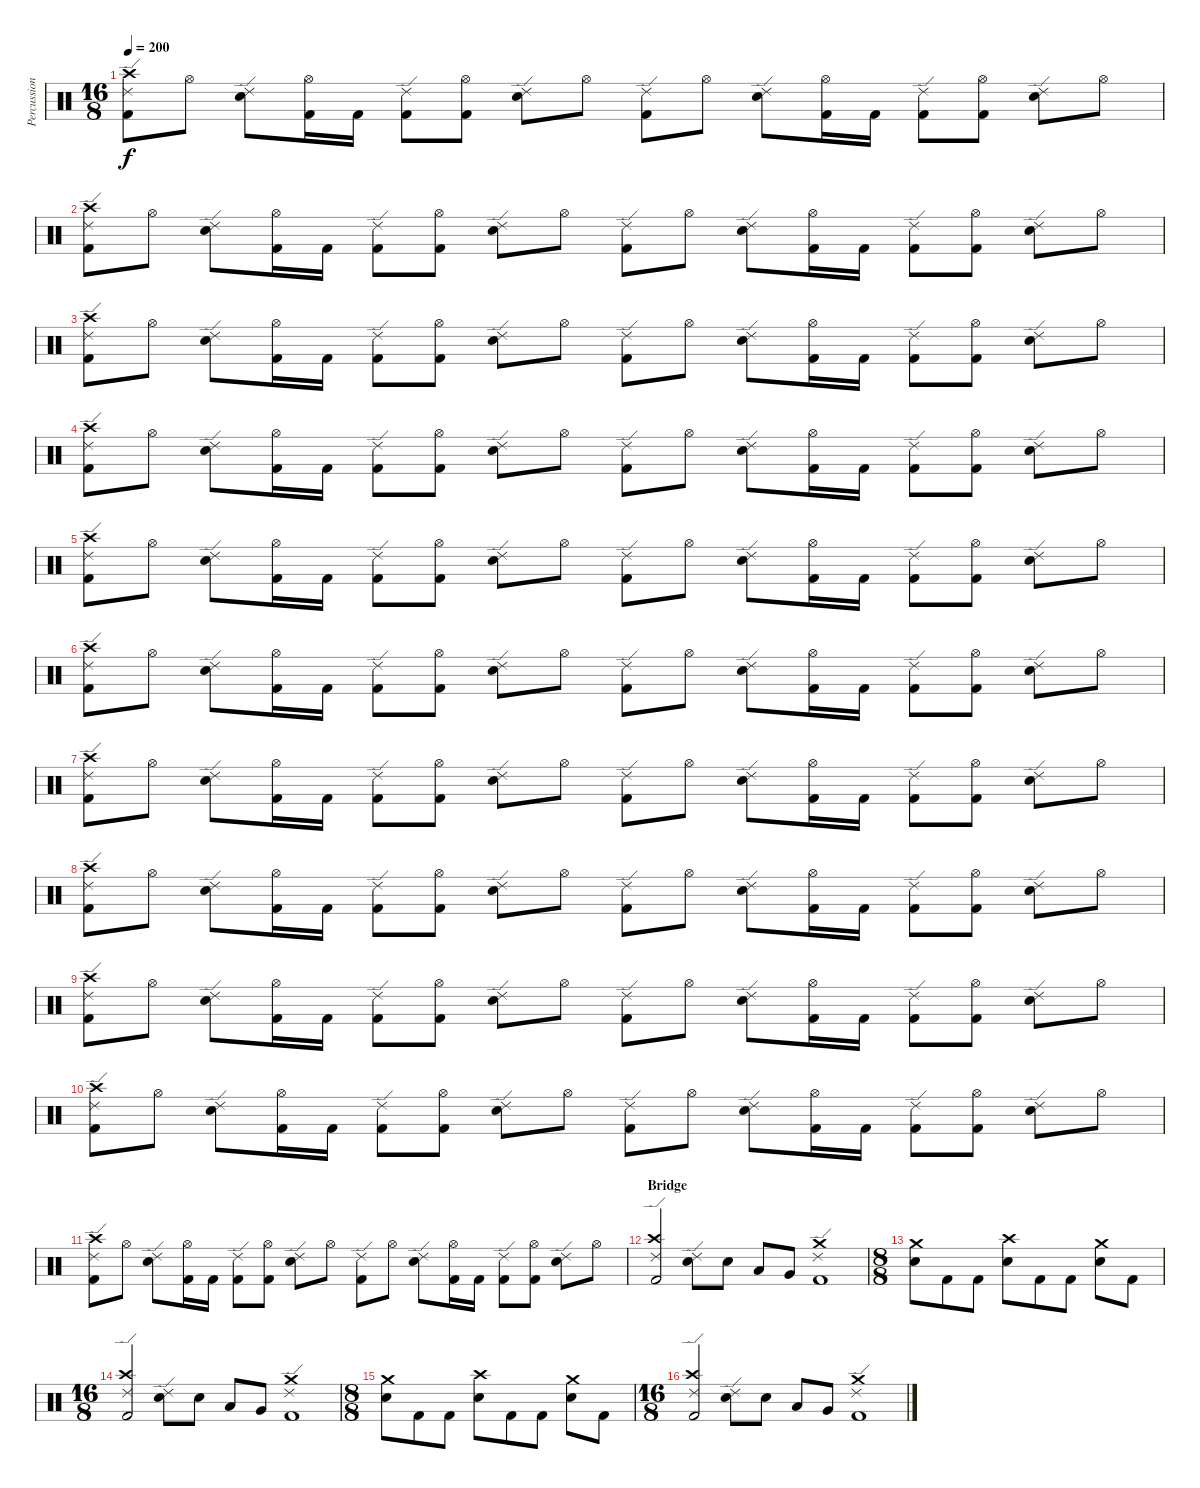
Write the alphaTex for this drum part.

\track ("Percussions" "Percussion") {instrument percussion}
\staff {score}
\articulation defaults
\ts (16 8)
\tempo 200
\clef neutral
\ks c
("Ride (edge) 2" "Crash high (hit)" "Kick (hit) 2").8{dy f} "Hi-Hat (open)".8 ("Ride (edge) 2" "Electric Snare (hit)").8 ("Hi-Hat (open)" "Kick (hit) 2").16 "Kick (hit) 2".16 ("Ride (edge) 2" "Kick (hit) 2").8 ("Hi-Hat (open)" "Kick (hit) 2").8 ("Ride (edge) 2" "Electric Snare (hit)").8 "Hi-Hat (open)".8 ("Ride (edge) 2" "Kick (hit) 2").8 "Hi-Hat (open)".8 ("Ride (edge) 2" "Electric Snare (hit)").8 ("Hi-Hat (open)" "Kick (hit) 2").16 "Kick (hit) 2".16 ("Ride (edge) 2" "Kick (hit) 2").8 ("Hi-Hat (open)" "Kick (hit) 2").8 ("Ride (edge) 2" "Electric Snare (hit)").8 "Hi-Hat (open)".8 |
("Ride (edge) 2" "Crash high (hit)" "Kick (hit) 2").8 "Hi-Hat (open)".8 ("Ride (edge) 2" "Electric Snare (hit)").8 ("Hi-Hat (open)" "Kick (hit) 2").16 "Kick (hit) 2".16 ("Ride (edge) 2" "Kick (hit) 2").8 ("Hi-Hat (open)" "Kick (hit) 2").8 ("Ride (edge) 2" "Electric Snare (hit)").8 "Hi-Hat (open)".8 ("Ride (edge) 2" "Kick (hit) 2").8 "Hi-Hat (open)".8 ("Ride (edge) 2" "Electric Snare (hit)").8 ("Hi-Hat (open)" "Kick (hit) 2").16 "Kick (hit) 2".16 ("Ride (edge) 2" "Kick (hit) 2").8 ("Hi-Hat (open)" "Kick (hit) 2").8 ("Ride (edge) 2" "Electric Snare (hit)").8 "Hi-Hat (open)".8 |
("Ride (edge) 2" "Crash high (hit)" "Kick (hit) 2").8 "Hi-Hat (open)".8 ("Ride (edge) 2" "Electric Snare (hit)").8 ("Hi-Hat (open)" "Kick (hit) 2").16 "Kick (hit) 2".16 ("Ride (edge) 2" "Kick (hit) 2").8 ("Hi-Hat (open)" "Kick (hit) 2").8 ("Ride (edge) 2" "Electric Snare (hit)").8 "Hi-Hat (open)".8 ("Ride (edge) 2" "Kick (hit) 2").8 "Hi-Hat (open)".8 ("Ride (edge) 2" "Electric Snare (hit)").8 ("Hi-Hat (open)" "Kick (hit) 2").16 "Kick (hit) 2".16 ("Ride (edge) 2" "Kick (hit) 2").8 ("Hi-Hat (open)" "Kick (hit) 2").8 ("Ride (edge) 2" "Electric Snare (hit)").8 "Hi-Hat (open)".8 |
("Ride (edge) 2" "Crash high (hit)" "Kick (hit) 2").8 "Hi-Hat (open)".8 ("Ride (edge) 2" "Electric Snare (hit)").8 ("Hi-Hat (open)" "Kick (hit) 2").16 "Kick (hit) 2".16 ("Ride (edge) 2" "Kick (hit) 2").8 ("Hi-Hat (open)" "Kick (hit) 2").8 ("Ride (edge) 2" "Electric Snare (hit)").8 "Hi-Hat (open)".8 ("Ride (edge) 2" "Kick (hit) 2").8 "Hi-Hat (open)".8 ("Ride (edge) 2" "Electric Snare (hit)").8 ("Hi-Hat (open)" "Kick (hit) 2").16 "Kick (hit) 2".16 ("Ride (edge) 2" "Kick (hit) 2").8 ("Hi-Hat (open)" "Kick (hit) 2").8 ("Ride (edge) 2" "Electric Snare (hit)").8 "Hi-Hat (open)".8 |
("Ride (edge) 2" "Crash high (hit)" "Kick (hit) 2").8 "Hi-Hat (open)".8 ("Ride (edge) 2" "Electric Snare (hit)").8 ("Hi-Hat (open)" "Kick (hit) 2").16 "Kick (hit) 2".16 ("Ride (edge) 2" "Kick (hit) 2").8 ("Hi-Hat (open)" "Kick (hit) 2").8 ("Ride (edge) 2" "Electric Snare (hit)").8 "Hi-Hat (open)".8 ("Ride (edge) 2" "Kick (hit) 2").8 "Hi-Hat (open)".8 ("Ride (edge) 2" "Electric Snare (hit)").8 ("Hi-Hat (open)" "Kick (hit) 2").16 "Kick (hit) 2".16 ("Ride (edge) 2" "Kick (hit) 2").8 ("Hi-Hat (open)" "Kick (hit) 2").8 ("Ride (edge) 2" "Electric Snare (hit)").8 "Hi-Hat (open)".8 |
("Ride (edge) 2" "Crash high (hit)" "Kick (hit) 2").8 "Hi-Hat (open)".8 ("Ride (edge) 2" "Electric Snare (hit)").8 ("Hi-Hat (open)" "Kick (hit) 2").16 "Kick (hit) 2".16 ("Ride (edge) 2" "Kick (hit) 2").8 ("Hi-Hat (open)" "Kick (hit) 2").8 ("Ride (edge) 2" "Electric Snare (hit)").8 "Hi-Hat (open)".8 ("Ride (edge) 2" "Kick (hit) 2").8 "Hi-Hat (open)".8 ("Ride (edge) 2" "Electric Snare (hit)").8 ("Hi-Hat (open)" "Kick (hit) 2").16 "Kick (hit) 2".16 ("Ride (edge) 2" "Kick (hit) 2").8 ("Hi-Hat (open)" "Kick (hit) 2").8 ("Ride (edge) 2" "Electric Snare (hit)").8 "Hi-Hat (open)".8 |
("Ride (edge) 2" "Crash high (hit)" "Kick (hit) 2").8 "Hi-Hat (open)".8 ("Ride (edge) 2" "Electric Snare (hit)").8 ("Hi-Hat (open)" "Kick (hit) 2").16 "Kick (hit) 2".16 ("Ride (edge) 2" "Kick (hit) 2").8 ("Hi-Hat (open)" "Kick (hit) 2").8 ("Ride (edge) 2" "Electric Snare (hit)").8 "Hi-Hat (open)".8 ("Ride (edge) 2" "Kick (hit) 2").8 "Hi-Hat (open)".8 ("Ride (edge) 2" "Electric Snare (hit)").8 ("Hi-Hat (open)" "Kick (hit) 2").16 "Kick (hit) 2".16 ("Ride (edge) 2" "Kick (hit) 2").8 ("Hi-Hat (open)" "Kick (hit) 2").8 ("Ride (edge) 2" "Electric Snare (hit)").8 "Hi-Hat (open)".8 |
("Ride (edge) 2" "Crash high (hit)" "Kick (hit) 2").8 "Hi-Hat (open)".8 ("Ride (edge) 2" "Electric Snare (hit)").8 ("Hi-Hat (open)" "Kick (hit) 2").16 "Kick (hit) 2".16 ("Ride (edge) 2" "Kick (hit) 2").8 ("Hi-Hat (open)" "Kick (hit) 2").8 ("Ride (edge) 2" "Electric Snare (hit)").8 "Hi-Hat (open)".8 ("Ride (edge) 2" "Kick (hit) 2").8 "Hi-Hat (open)".8 ("Ride (edge) 2" "Electric Snare (hit)").8 ("Hi-Hat (open)" "Kick (hit) 2").16 "Kick (hit) 2".16 ("Ride (edge) 2" "Kick (hit) 2").8 ("Hi-Hat (open)" "Kick (hit) 2").8 ("Ride (edge) 2" "Electric Snare (hit)").8 "Hi-Hat (open)".8 |
("Ride (edge) 2" "Crash high (hit)" "Kick (hit) 2").8 "Hi-Hat (open)".8 ("Ride (edge) 2" "Electric Snare (hit)").8 ("Hi-Hat (open)" "Kick (hit) 2").16 "Kick (hit) 2".16 ("Ride (edge) 2" "Kick (hit) 2").8 ("Hi-Hat (open)" "Kick (hit) 2").8 ("Ride (edge) 2" "Electric Snare (hit)").8 "Hi-Hat (open)".8 ("Ride (edge) 2" "Kick (hit) 2").8 "Hi-Hat (open)".8 ("Ride (edge) 2" "Electric Snare (hit)").8 ("Hi-Hat (open)" "Kick (hit) 2").16 "Kick (hit) 2".16 ("Ride (edge) 2" "Kick (hit) 2").8 ("Hi-Hat (open)" "Kick (hit) 2").8 ("Ride (edge) 2" "Electric Snare (hit)").8 "Hi-Hat (open)".8 |
("Ride (edge) 2" "Crash high (hit)" "Kick (hit) 2").8 "Hi-Hat (open)".8 ("Ride (edge) 2" "Electric Snare (hit)").8 ("Hi-Hat (open)" "Kick (hit) 2").16 "Kick (hit) 2".16 ("Ride (edge) 2" "Kick (hit) 2").8 ("Hi-Hat (open)" "Kick (hit) 2").8 ("Ride (edge) 2" "Electric Snare (hit)").8 "Hi-Hat (open)".8 ("Ride (edge) 2" "Kick (hit) 2").8 "Hi-Hat (open)".8 ("Ride (edge) 2" "Electric Snare (hit)").8 ("Hi-Hat (open)" "Kick (hit) 2").16 "Kick (hit) 2".16 ("Ride (edge) 2" "Kick (hit) 2").8 ("Hi-Hat (open)" "Kick (hit) 2").8 ("Ride (edge) 2" "Electric Snare (hit)").8 "Hi-Hat (open)".8 |
("Ride (edge) 2" "Crash high (hit)" "Kick (hit) 2").8 "Hi-Hat (open)".8 ("Ride (edge) 2" "Electric Snare (hit)").8 ("Hi-Hat (open)" "Kick (hit) 2").16 "Kick (hit) 2".16 ("Ride (edge) 2" "Kick (hit) 2").8 ("Hi-Hat (open)" "Kick (hit) 2").8 ("Ride (edge) 2" "Electric Snare (hit)").8 "Hi-Hat (open)".8 ("Ride (edge) 2" "Kick (hit) 2").8 "Hi-Hat (open)".8 ("Ride (edge) 2" "Electric Snare (hit)").8 ("Hi-Hat (open)" "Kick (hit) 2").16 "Kick (hit) 2".16 ("Ride (edge) 2" "Kick (hit) 2").8 ("Hi-Hat (open)" "Kick (hit) 2").8 ("Ride (edge) 2" "Electric Snare (hit)").8 "Hi-Hat (open)".8 |
\section ("" "Bridge")
("Crash high (hit)" "Ride (edge) 2" "Kick (hit) 2").2 ("Ride (edge) 2" "Electric Snare (hit)").8 "Electric Snare (hit)".8 "Low Tom (hit)".8 "Very Low Tom (hit)".8 ("Crash medium (hit)" "Ride (edge) 2" "Kick (hit) 2").1 |
\ts (8 8)
("Crash medium (hit)" "Electric Snare (hit)").8 "Kick (hit) 2".8 "Kick (hit) 2".8 ("Crash high (hit)" "Electric Snare (hit)").8 "Kick (hit) 2".8 "Kick (hit) 2".8 ("Crash medium (hit)" "Electric Snare (hit)").8 "Kick (hit) 2".8 |
\ts (16 8)
("Crash high (hit)" "Ride (edge) 2" "Kick (hit) 2").2 ("Ride (edge) 2" "Electric Snare (hit)").8 "Electric Snare (hit)".8 "Low Tom (hit)".8 "Very Low Tom (hit)".8 ("Crash medium (hit)" "Ride (edge) 2" "Kick (hit) 2").1 |
\ts (8 8)
("Crash medium (hit)" "Electric Snare (hit)").8 "Kick (hit) 2".8 "Kick (hit) 2".8 ("Crash high (hit)" "Electric Snare (hit)").8 "Kick (hit) 2".8 "Kick (hit) 2".8 ("Crash medium (hit)" "Electric Snare (hit)").8 "Kick (hit) 2".8 |
\ts (16 8)
("Crash high (hit)" "Ride (edge) 2" "Kick (hit) 2").2 ("Ride (edge) 2" "Electric Snare (hit)").8 "Electric Snare (hit)".8 "Low Tom (hit)".8 "Very Low Tom (hit)".8 ("Crash medium (hit)" "Ride (edge) 2" "Kick (hit) 2").1
